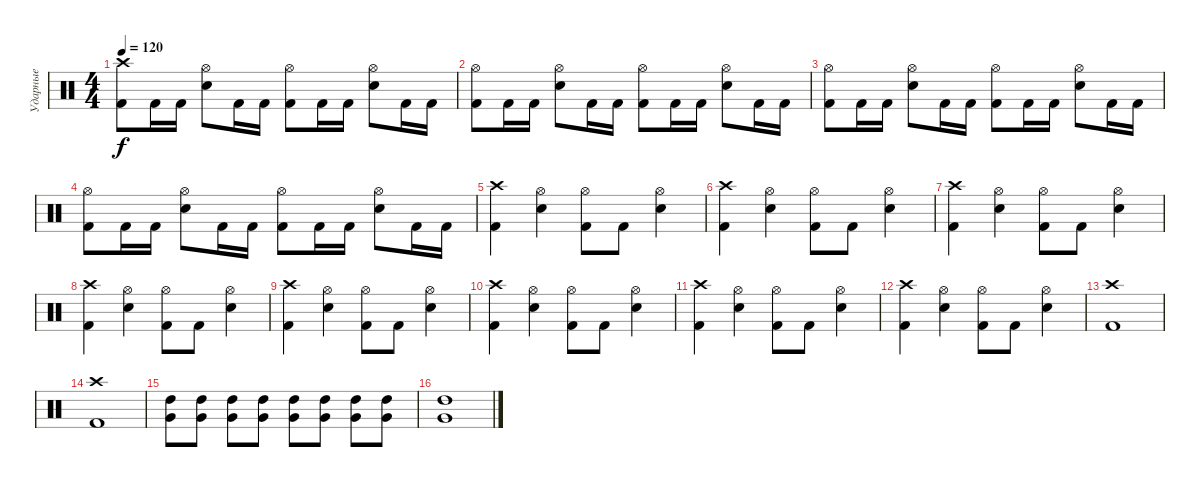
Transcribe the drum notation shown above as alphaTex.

\track ("Ударные" "Ударные") {instrument percussion}
\staff {score}
\articulation defaults
\ts (4 4)
\tempo 120
\clef neutral
\ks c
("Kick (hit) 2" "Crash high (hit)").8{dy f} "Kick (hit) 2".16 "Kick (hit) 2".16 ("Snare (hit) 2" "Hi-Hat (open)").8 "Kick (hit) 2".16 "Kick (hit) 2".16 ("Kick (hit) 2" "Hi-Hat (open)").8 "Kick (hit) 2".16 "Kick (hit) 2".16 ("Snare (hit) 2" "Hi-Hat (open)").8 "Kick (hit) 2".16 "Kick (hit) 2".16 |
("Kick (hit) 2" "Hi-Hat (open)").8 "Kick (hit) 2".16 "Kick (hit) 2".16 ("Snare (hit) 2" "Hi-Hat (open)").8 "Kick (hit) 2".16 "Kick (hit) 2".16 ("Kick (hit) 2" "Hi-Hat (open)").8 "Kick (hit) 2".16 "Kick (hit) 2".16 ("Snare (hit) 2" "Hi-Hat (open)").8 "Kick (hit) 2".16 "Kick (hit) 2".16 |
("Kick (hit) 2" "Hi-Hat (open)").8 "Kick (hit) 2".16 "Kick (hit) 2".16 ("Snare (hit) 2" "Hi-Hat (open)").8 "Kick (hit) 2".16 "Kick (hit) 2".16 ("Kick (hit) 2" "Hi-Hat (open)").8 "Kick (hit) 2".16 "Kick (hit) 2".16 ("Snare (hit) 2" "Hi-Hat (open)").8 "Kick (hit) 2".16 "Kick (hit) 2".16 |
("Kick (hit) 2" "Hi-Hat (open)").8 "Kick (hit) 2".16 "Kick (hit) 2".16 ("Snare (hit) 2" "Hi-Hat (open)").8 "Kick (hit) 2".16 "Kick (hit) 2".16 ("Kick (hit) 2" "Hi-Hat (open)").8 "Kick (hit) 2".16 "Kick (hit) 2".16 ("Snare (hit) 2" "Hi-Hat (open)").8 "Kick (hit) 2".16 "Kick (hit) 2".16 |
("Crash high (hit)" "Kick (hit) 2").4 ("Hi-Hat (open)" "Snare (hit) 2").4 ("Hi-Hat (open)" "Kick (hit) 2").8 "Kick (hit) 2".8 ("Hi-Hat (open)" "Snare (hit) 2").4 |
("Crash high (hit)" "Kick (hit) 2").4 ("Hi-Hat (open)" "Snare (hit) 2").4 ("Hi-Hat (open)" "Kick (hit) 2").8 "Kick (hit) 2".8 ("Hi-Hat (open)" "Snare (hit) 2").4 |
("Crash high (hit)" "Kick (hit) 2").4 ("Hi-Hat (open)" "Snare (hit) 2").4 ("Hi-Hat (open)" "Kick (hit) 2").8 "Kick (hit) 2".8 ("Hi-Hat (open)" "Snare (hit) 2").4 |
("Crash high (hit)" "Kick (hit) 2").4 ("Hi-Hat (open)" "Snare (hit) 2").4 ("Hi-Hat (open)" "Kick (hit) 2").8 "Kick (hit) 2".8 ("Hi-Hat (open)" "Snare (hit) 2").4 |
("Crash high (hit)" "Kick (hit) 2").4 ("Hi-Hat (open)" "Snare (hit) 2").4 ("Hi-Hat (open)" "Kick (hit) 2").8 "Kick (hit) 2".8 ("Hi-Hat (open)" "Snare (hit) 2").4 |
("Crash high (hit)" "Kick (hit) 2").4 ("Hi-Hat (open)" "Snare (hit) 2").4 ("Hi-Hat (open)" "Kick (hit) 2").8 "Kick (hit) 2".8 ("Hi-Hat (open)" "Snare (hit) 2").4 |
("Crash high (hit)" "Kick (hit) 2").4 ("Hi-Hat (open)" "Snare (hit) 2").4 ("Hi-Hat (open)" "Kick (hit) 2").8 "Kick (hit) 2".8 ("Hi-Hat (open)" "Snare (hit) 2").4 |
("Crash high (hit)" "Kick (hit) 2").4 ("Hi-Hat (open)" "Snare (hit) 2").4 ("Hi-Hat (open)" "Kick (hit) 2").8 "Kick (hit) 2".8 ("Hi-Hat (open)" "Snare (hit) 2").4 |
("Crash high (hit)" "Kick (hit) 2").1 |
("Crash high (hit)" "Kick (hit) 2").1 |
("High Tom (hit)" "Very Low Tom (hit)").8 ("High Tom (hit)" "Very Low Tom (hit)").8 ("High Tom (hit)" "Very Low Tom (hit)").8 ("High Tom (hit)" "Very Low Tom (hit)").8 ("High Tom (hit)" "Very Low Tom (hit)").8 ("High Tom (hit)" "Very Low Tom (hit)").8 ("High Tom (hit)" "Very Low Tom (hit)").8 ("High Tom (hit)" "Very Low Tom (hit)").8 |
("High Tom (hit)" "Very Low Tom (hit)").1
